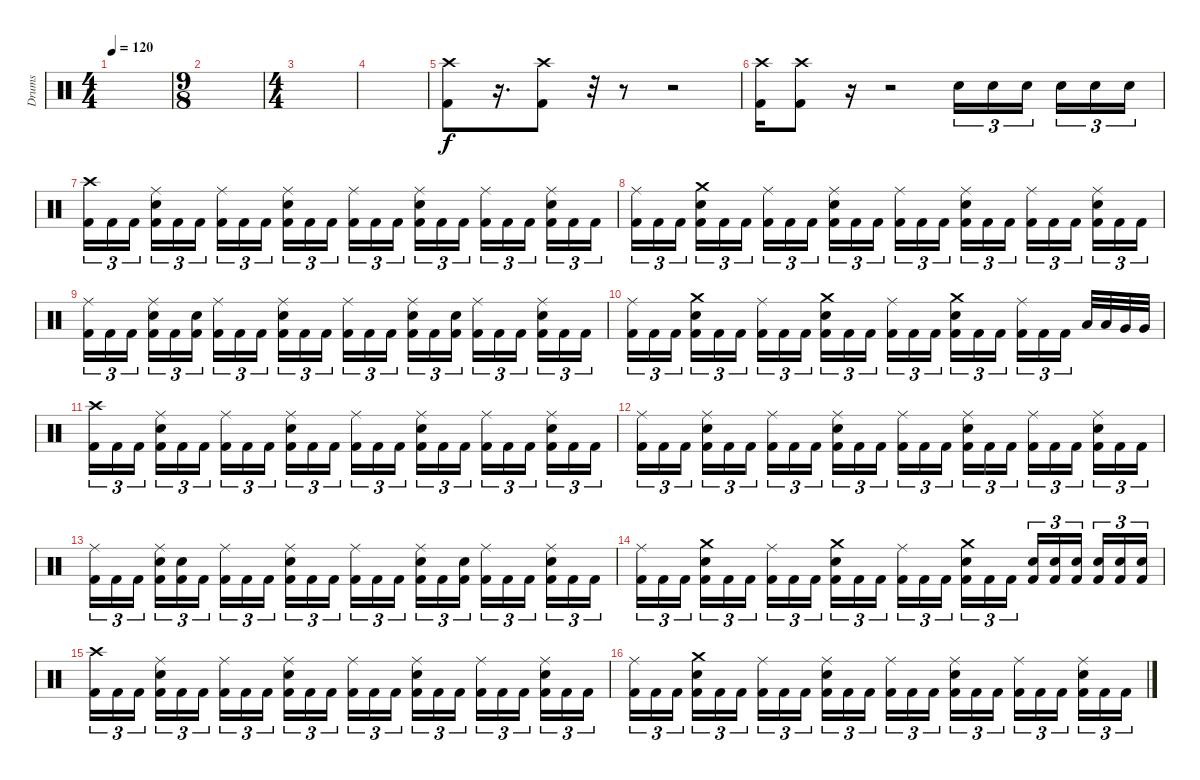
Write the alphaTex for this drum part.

\track ("Drums" "Drums") {instrument percussion}
\staff
\articulation defaults
\ts (4 4)
\tempo 120
\clef neutral
\ks c
|
\ts (9 8)
|
\ts (4 4)
|
|
("Crash high (hit)" "Kick (hit) 2").8 r.16{d} ("Crash high (hit)" "Kick (hit) 2").8 r.32 r.8 r.2 |
("Crash high (hit)" "Kick (hit) 2").16 ("Crash high (hit)" "Kick (hit) 2").8 r.16 r.2 "Electric Snare (hit)".16{tu (3 2)} "Electric Snare (hit)".16{tu (3 2)} "Electric Snare (hit)".16{tu (3 2) beam splitsecondary} "Electric Snare (hit)".16{tu (3 2)} "Electric Snare (hit)".16{tu (3 2)} "Electric Snare (hit)".16{tu (3 2)} |
("Crash high (hit)" "Kick (hit) 2").16{tu (3 2)} "Kick (hit) 2".16{tu (3 2)} "Kick (hit) 2".16{tu (3 2) beam splitsecondary} ("Ride (middle)" "Electric Snare (hit)" "Kick (hit) 2").16{tu (3 2)} "Kick (hit) 2".16{tu (3 2)} "Kick (hit) 2".16{tu (3 2)} ("Ride (middle)" "Kick (hit) 2").16{tu (3 2)} "Kick (hit) 2".16{tu (3 2)} "Kick (hit) 2".16{tu (3 2) beam splitsecondary} ("Ride (middle)" "Electric Snare (hit)" "Kick (hit) 2").16{tu (3 2)} "Kick (hit) 2".16{tu (3 2)} "Kick (hit) 2".16{tu (3 2)} ("Ride (middle)" "Kick (hit) 2").16{tu (3 2)} "Kick (hit) 2".16{tu (3 2)} "Kick (hit) 2".16{tu (3 2) beam splitsecondary} ("Ride (middle)" "Electric Snare (hit)" "Kick (hit) 2").16{tu (3 2)} "Kick (hit) 2".16{tu (3 2)} "Kick (hit) 2".16{tu (3 2)} ("Ride (middle)" "Kick (hit) 2").16{tu (3 2)} "Kick (hit) 2".16{tu (3 2)} "Kick (hit) 2".16{tu (3 2) beam splitsecondary} ("Ride (middle)" "Electric Snare (hit)" "Kick (hit) 2").16{tu (3 2)} "Kick (hit) 2".16{tu (3 2)} "Kick (hit) 2".16{tu (3 2)} |
("Ride (middle)" "Kick (hit) 2").16{tu (3 2)} "Kick (hit) 2".16{tu (3 2)} "Kick (hit) 2".16{tu (3 2) beam splitsecondary} ("Crash medium (hit)" "Electric Snare (hit)" "Kick (hit) 2").16{tu (3 2)} "Kick (hit) 2".16{tu (3 2)} "Kick (hit) 2".16{tu (3 2)} ("Ride (middle)" "Kick (hit) 2").16{tu (3 2)} "Kick (hit) 2".16{tu (3 2)} "Kick (hit) 2".16{tu (3 2) beam splitsecondary} ("Ride (middle)" "Electric Snare (hit)" "Kick (hit) 2").16{tu (3 2)} "Kick (hit) 2".16{tu (3 2)} "Kick (hit) 2".16{tu (3 2)} ("Ride (middle)" "Kick (hit) 2").16{tu (3 2)} "Kick (hit) 2".16{tu (3 2)} "Kick (hit) 2".16{tu (3 2) beam splitsecondary} ("Ride (middle)" "Electric Snare (hit)" "Kick (hit) 2").16{tu (3 2)} "Kick (hit) 2".16{tu (3 2)} "Kick (hit) 2".16{tu (3 2)} ("Ride (middle)" "Kick (hit) 2").16{tu (3 2)} "Kick (hit) 2".16{tu (3 2)} "Kick (hit) 2".16{tu (3 2) beam splitsecondary} ("Ride (middle)" "Electric Snare (hit)" "Kick (hit) 2").16{tu (3 2)} "Kick (hit) 2".16{tu (3 2)} "Kick (hit) 2".16{tu (3 2)} |
("Ride (middle)" "Kick (hit) 2").16{tu (3 2)} "Kick (hit) 2".16{tu (3 2)} "Kick (hit) 2".16{tu (3 2) beam splitsecondary} ("Ride (middle)" "Electric Snare (hit)" "Kick (hit) 2").16{tu (3 2)} "Kick (hit) 2".16{tu (3 2)} ("Electric Snare (hit)" "Kick (hit) 2").16{tu (3 2)} ("Ride (middle)" "Kick (hit) 2").16{tu (3 2)} "Kick (hit) 2".16{tu (3 2)} "Kick (hit) 2".16{tu (3 2) beam splitsecondary} ("Ride (middle)" "Electric Snare (hit)" "Kick (hit) 2").16{tu (3 2)} "Kick (hit) 2".16{tu (3 2)} "Kick (hit) 2".16{tu (3 2)} ("Ride (middle)" "Kick (hit) 2").16{tu (3 2)} "Kick (hit) 2".16{tu (3 2)} "Kick (hit) 2".16{tu (3 2) beam splitsecondary} ("Ride (middle)" "Electric Snare (hit)" "Kick (hit) 2").16{tu (3 2)} "Kick (hit) 2".16{tu (3 2)} ("Electric Snare (hit)" "Kick (hit) 2").16{tu (3 2)} ("Ride (middle)" "Kick (hit) 2").16{tu (3 2)} "Kick (hit) 2".16{tu (3 2)} "Kick (hit) 2".16{tu (3 2) beam splitsecondary} ("Ride (middle)" "Electric Snare (hit)" "Kick (hit) 2").16{tu (3 2)} "Kick (hit) 2".16{tu (3 2)} "Kick (hit) 2".16{tu (3 2)} |
("Ride (middle)" "Kick (hit) 2").16{tu (3 2)} "Kick (hit) 2".16{tu (3 2)} "Kick (hit) 2".16{tu (3 2) beam splitsecondary} ("Crash medium (hit)" "Electric Snare (hit)" "Kick (hit) 2").16{tu (3 2)} "Kick (hit) 2".16{tu (3 2)} "Kick (hit) 2".16{tu (3 2)} ("Ride (middle)" "Kick (hit) 2").16{tu (3 2)} "Kick (hit) 2".16{tu (3 2)} "Kick (hit) 2".16{tu (3 2) beam splitsecondary} ("Crash medium (hit)" "Electric Snare (hit)" "Kick (hit) 2").16{tu (3 2)} "Kick (hit) 2".16{tu (3 2)} "Kick (hit) 2".16{tu (3 2)} ("Ride (middle)" "Kick (hit) 2").16{tu (3 2)} "Kick (hit) 2".16{tu (3 2)} "Kick (hit) 2".16{tu (3 2) beam splitsecondary} ("Crash medium (hit)" "Electric Snare (hit)" "Kick (hit) 2").16{tu (3 2)} "Kick (hit) 2".16{tu (3 2)} "Kick (hit) 2".16{tu (3 2)} ("Ride (middle)" "Kick (hit) 2").16{tu (3 2)} "Kick (hit) 2".16{tu (3 2)} "Kick (hit) 2".16{tu (3 2) beam splitsecondary} "Low Tom (hit)".32 "Low Tom (hit)".32 "Very Low Tom (hit)".32 "Very Low Tom (hit)".32 |
("Crash high (hit)" "Kick (hit) 2").16{tu (3 2)} "Kick (hit) 2".16{tu (3 2)} "Kick (hit) 2".16{tu (3 2) beam splitsecondary} ("Ride (middle)" "Electric Snare (hit)" "Kick (hit) 2").16{tu (3 2)} "Kick (hit) 2".16{tu (3 2)} "Kick (hit) 2".16{tu (3 2)} ("Ride (middle)" "Kick (hit) 2").16{tu (3 2)} "Kick (hit) 2".16{tu (3 2)} "Kick (hit) 2".16{tu (3 2) beam splitsecondary} ("Ride (middle)" "Electric Snare (hit)" "Kick (hit) 2").16{tu (3 2)} "Kick (hit) 2".16{tu (3 2)} "Kick (hit) 2".16{tu (3 2)} ("Ride (middle)" "Kick (hit) 2").16{tu (3 2)} "Kick (hit) 2".16{tu (3 2)} "Kick (hit) 2".16{tu (3 2) beam splitsecondary} ("Ride (middle)" "Electric Snare (hit)" "Kick (hit) 2").16{tu (3 2)} "Kick (hit) 2".16{tu (3 2)} "Kick (hit) 2".16{tu (3 2)} ("Ride (middle)" "Kick (hit) 2").16{tu (3 2)} "Kick (hit) 2".16{tu (3 2)} "Kick (hit) 2".16{tu (3 2) beam splitsecondary} ("Ride (middle)" "Electric Snare (hit)" "Kick (hit) 2").16{tu (3 2)} "Kick (hit) 2".16{tu (3 2)} "Kick (hit) 2".16{tu (3 2)} |
("Ride (middle)" "Kick (hit) 2").16{tu (3 2)} "Kick (hit) 2".16{tu (3 2)} "Kick (hit) 2".16{tu (3 2) beam splitsecondary} ("Ride (middle)" "Electric Snare (hit)" "Kick (hit) 2").16{tu (3 2)} "Kick (hit) 2".16{tu (3 2)} "Kick (hit) 2".16{tu (3 2)} ("Ride (middle)" "Kick (hit) 2").16{tu (3 2)} "Kick (hit) 2".16{tu (3 2)} "Kick (hit) 2".16{tu (3 2) beam splitsecondary} ("Ride (middle)" "Electric Snare (hit)" "Kick (hit) 2").16{tu (3 2)} "Kick (hit) 2".16{tu (3 2)} "Kick (hit) 2".16{tu (3 2)} ("Ride (middle)" "Kick (hit) 2").16{tu (3 2)} "Kick (hit) 2".16{tu (3 2)} "Kick (hit) 2".16{tu (3 2) beam splitsecondary} ("Ride (middle)" "Electric Snare (hit)" "Kick (hit) 2").16{tu (3 2)} "Kick (hit) 2".16{tu (3 2)} "Kick (hit) 2".16{tu (3 2)} ("Ride (middle)" "Kick (hit) 2").16{tu (3 2)} "Kick (hit) 2".16{tu (3 2)} "Kick (hit) 2".16{tu (3 2) beam splitsecondary} ("Ride (middle)" "Electric Snare (hit)" "Kick (hit) 2").16{tu (3 2)} "Kick (hit) 2".16{tu (3 2)} "Kick (hit) 2".16{tu (3 2)} |
("Ride (middle)" "Kick (hit) 2").16{tu (3 2)} "Kick (hit) 2".16{tu (3 2)} "Kick (hit) 2".16{tu (3 2) beam splitsecondary} ("Ride (middle)" "Electric Snare (hit)" "Kick (hit) 2").16{tu (3 2)} ("Electric Snare (hit)" "Kick (hit) 2").16{tu (3 2)} "Kick (hit) 2".16{tu (3 2)} ("Ride (middle)" "Kick (hit) 2").16{tu (3 2)} "Kick (hit) 2".16{tu (3 2)} "Kick (hit) 2".16{tu (3 2) beam splitsecondary} ("Ride (middle)" "Electric Snare (hit)" "Kick (hit) 2").16{tu (3 2)} "Kick (hit) 2".16{tu (3 2)} "Kick (hit) 2".16{tu (3 2)} ("Ride (middle)" "Kick (hit) 2").16{tu (3 2)} "Kick (hit) 2".16{tu (3 2)} "Kick (hit) 2".16{tu (3 2) beam splitsecondary} ("Ride (middle)" "Electric Snare (hit)" "Kick (hit) 2").16{tu (3 2)} "Kick (hit) 2".16{tu (3 2)} ("Electric Snare (hit)" "Kick (hit) 2").16{tu (3 2)} ("Ride (middle)" "Kick (hit) 2").16{tu (3 2)} "Kick (hit) 2".16{tu (3 2)} "Kick (hit) 2".16{tu (3 2) beam splitsecondary} ("Ride (middle)" "Electric Snare (hit)" "Kick (hit) 2").16{tu (3 2)} "Kick (hit) 2".16{tu (3 2)} "Kick (hit) 2".16{tu (3 2)} |
("Ride (middle)" "Kick (hit) 2").16{tu (3 2)} "Kick (hit) 2".16{tu (3 2)} "Kick (hit) 2".16{tu (3 2) beam splitsecondary} ("Crash medium (hit)" "Electric Snare (hit)" "Kick (hit) 2").16{tu (3 2)} "Kick (hit) 2".16{tu (3 2)} "Kick (hit) 2".16{tu (3 2)} ("Ride (middle)" "Kick (hit) 2").16{tu (3 2)} "Kick (hit) 2".16{tu (3 2)} "Kick (hit) 2".16{tu (3 2) beam splitsecondary} ("Crash medium (hit)" "Electric Snare (hit)" "Kick (hit) 2").16{tu (3 2)} "Kick (hit) 2".16{tu (3 2)} "Kick (hit) 2".16{tu (3 2)} ("Ride (middle)" "Kick (hit) 2").16{tu (3 2)} "Kick (hit) 2".16{tu (3 2)} "Kick (hit) 2".16{tu (3 2) beam splitsecondary} ("Crash medium (hit)" "Electric Snare (hit)" "Kick (hit) 2").16{tu (3 2)} "Kick (hit) 2".16{tu (3 2)} "Kick (hit) 2".16{tu (3 2)} ("Electric Snare (hit)" "Kick (hit) 2").16{tu (3 2)} ("Electric Snare (hit)" "Kick (hit) 2").16{tu (3 2)} ("Electric Snare (hit)" "Kick (hit) 2").16{tu (3 2) beam splitsecondary} ("Electric Snare (hit)" "Kick (hit) 2").16{tu (3 2)} ("Electric Snare (hit)" "Kick (hit) 2").16{tu (3 2)} ("Electric Snare (hit)" "Kick (hit) 2").16{tu (3 2)} |
("Crash high (hit)" "Kick (hit) 2").16{tu (3 2)} "Kick (hit) 2".16{tu (3 2)} "Kick (hit) 2".16{tu (3 2) beam splitsecondary} ("Ride (middle)" "Electric Snare (hit)" "Kick (hit) 2").16{tu (3 2)} "Kick (hit) 2".16{tu (3 2)} "Kick (hit) 2".16{tu (3 2)} ("Ride (middle)" "Kick (hit) 2").16{tu (3 2)} "Kick (hit) 2".16{tu (3 2)} "Kick (hit) 2".16{tu (3 2) beam splitsecondary} ("Ride (middle)" "Electric Snare (hit)" "Kick (hit) 2").16{tu (3 2)} "Kick (hit) 2".16{tu (3 2)} "Kick (hit) 2".16{tu (3 2)} ("Ride (middle)" "Kick (hit) 2").16{tu (3 2)} "Kick (hit) 2".16{tu (3 2)} "Kick (hit) 2".16{tu (3 2) beam splitsecondary} ("Ride (middle)" "Electric Snare (hit)" "Kick (hit) 2").16{tu (3 2)} "Kick (hit) 2".16{tu (3 2)} "Kick (hit) 2".16{tu (3 2)} ("Ride (middle)" "Kick (hit) 2").16{tu (3 2)} "Kick (hit) 2".16{tu (3 2)} "Kick (hit) 2".16{tu (3 2) beam splitsecondary} ("Ride (middle)" "Electric Snare (hit)" "Kick (hit) 2").16{tu (3 2)} "Kick (hit) 2".16{tu (3 2)} "Kick (hit) 2".16{tu (3 2)} |
("Ride (middle)" "Kick (hit) 2").16{tu (3 2)} "Kick (hit) 2".16{tu (3 2)} "Kick (hit) 2".16{tu (3 2) beam splitsecondary} ("Crash medium (hit)" "Electric Snare (hit)" "Kick (hit) 2").16{tu (3 2)} "Kick (hit) 2".16{tu (3 2)} "Kick (hit) 2".16{tu (3 2)} ("Ride (middle)" "Kick (hit) 2").16{tu (3 2)} "Kick (hit) 2".16{tu (3 2)} "Kick (hit) 2".16{tu (3 2) beam splitsecondary} ("Ride (middle)" "Electric Snare (hit)" "Kick (hit) 2").16{tu (3 2)} "Kick (hit) 2".16{tu (3 2)} "Kick (hit) 2".16{tu (3 2)} ("Ride (middle)" "Kick (hit) 2").16{tu (3 2)} "Kick (hit) 2".16{tu (3 2)} "Kick (hit) 2".16{tu (3 2) beam splitsecondary} ("Ride (middle)" "Electric Snare (hit)" "Kick (hit) 2").16{tu (3 2)} "Kick (hit) 2".16{tu (3 2)} "Kick (hit) 2".16{tu (3 2)} ("Ride (middle)" "Kick (hit) 2").16{tu (3 2)} "Kick (hit) 2".16{tu (3 2)} "Kick (hit) 2".16{tu (3 2) beam splitsecondary} ("Ride (middle)" "Electric Snare (hit)" "Kick (hit) 2").16{tu (3 2)} "Kick (hit) 2".16{tu (3 2)} "Kick (hit) 2".16{tu (3 2)}
